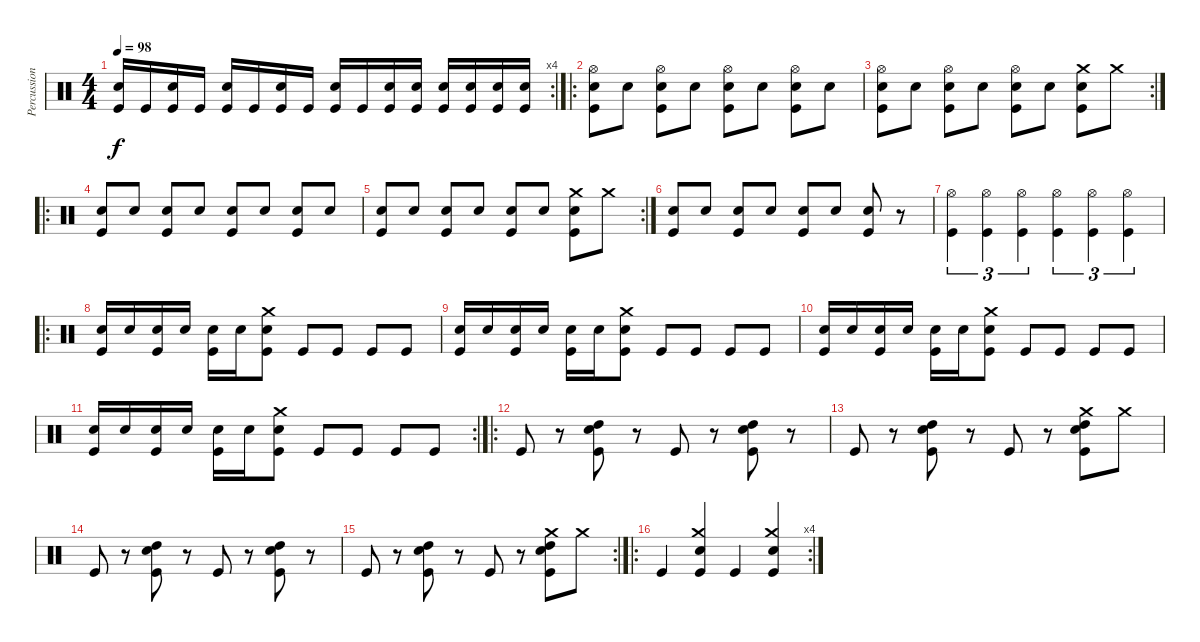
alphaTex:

\track ("Percussion" "Percussion") {instrument percussion}
\staff {score}
\articulation defaults
\rc 4
\ts (4 4)
\tempo 98
\clef neutral
\ks c
("Snare (hit) 2" "Kick (hit)").16{dy f} "Kick (hit)".16 ("Snare (hit) 2" "Kick (hit)").16 "Kick (hit)".16 ("Snare (hit) 2" "Kick (hit)").16 "Kick (hit)".16 ("Snare (hit) 2" "Kick (hit)").16 "Kick (hit)".16 ("Snare (hit) 2" "Kick (hit)").16 "Kick (hit)".16 ("Snare (hit) 2" "Kick (hit)").16 ("Snare (hit) 2" "Kick (hit)").16 ("Snare (hit) 2" "Kick (hit)").16 ("Snare (hit) 2" "Kick (hit)").16 ("Snare (hit) 2" "Kick (hit)").16 ("Snare (hit) 2" "Kick (hit)").16 |
\ro
("Hi-Hat (open)" "Snare (hit) 2" "Kick (hit)").8 "Snare (hit) 2".8 ("Hi-Hat (open)" "Snare (hit) 2" "Kick (hit)").8 "Snare (hit) 2".8 ("Hi-Hat (open)" "Snare (hit) 2" "Kick (hit)").8 "Snare (hit) 2".8 ("Hi-Hat (open)" "Snare (hit) 2" "Kick (hit)").8 "Snare (hit) 2".8 |
\rc 2
("Hi-Hat (open)" "Snare (hit) 2" "Kick (hit)").8 "Snare (hit) 2".8 ("Hi-Hat (open)" "Snare (hit) 2" "Kick (hit)").8 "Snare (hit) 2".8 ("Hi-Hat (open)" "Snare (hit) 2" "Kick (hit)").8 "Snare (hit) 2".8 ("Crash medium (hit)" "Snare (hit) 2" "Kick (hit)").8 "Crash medium (hit)".8 |
\ro
("Snare (hit) 2" "Kick (hit)").8 "Snare (hit) 2".8 ("Snare (hit) 2" "Kick (hit)").8 "Snare (hit) 2".8 ("Snare (hit) 2" "Kick (hit)").8 "Snare (hit) 2".8 ("Snare (hit) 2" "Kick (hit)").8 "Snare (hit) 2".8 |
\rc 2
("Snare (hit) 2" "Kick (hit)").8 "Snare (hit) 2".8 ("Snare (hit) 2" "Kick (hit)").8 "Snare (hit) 2".8 ("Snare (hit) 2" "Kick (hit)").8 "Snare (hit) 2".8 ("Crash medium (hit)" "Snare (hit) 2" "Kick (hit)").8 "Crash medium (hit)".8 |
("Snare (hit) 2" "Kick (hit)").8 "Snare (hit) 2".8 ("Snare (hit) 2" "Kick (hit)").8 "Snare (hit) 2".8 ("Snare (hit) 2" "Kick (hit)").8 "Snare (hit) 2".8 ("Snare (hit) 2" "Kick (hit)").8 r.8 |
("Hi-Hat (open)" "Kick (hit)").4{tu (3 2)} ("Hi-Hat (open)" "Kick (hit)").4{tu (3 2)} ("Hi-Hat (open)" "Kick (hit)").4{tu (3 2)} ("Hi-Hat (open)" "Kick (hit)").4{tu (3 2)} ("Hi-Hat (open)" "Kick (hit)").4{tu (3 2)} ("Hi-Hat (open)" "Kick (hit)").4{tu (3 2)} |
\ro
("Snare (hit) 2" "Kick (hit)").16 "Snare (hit) 2".16 ("Snare (hit) 2" "Kick (hit)").16 "Snare (hit) 2".16 ("Snare (hit) 2" "Kick (hit)").16 "Snare (hit) 2".16 ("Crash medium (hit)" "Snare (hit) 2" "Kick (hit)").8 "Kick (hit)".8 "Kick (hit)".8 "Kick (hit)".8 "Kick (hit)".8 |
("Snare (hit) 2" "Kick (hit)").16 "Snare (hit) 2".16 ("Snare (hit) 2" "Kick (hit)").16 "Snare (hit) 2".16 ("Snare (hit) 2" "Kick (hit)").16 "Snare (hit) 2".16 ("Crash medium (hit)" "Snare (hit) 2" "Kick (hit)").8 "Kick (hit)".8 "Kick (hit)".8 "Kick (hit)".8 "Kick (hit)".8 |
("Snare (hit) 2" "Kick (hit)").16 "Snare (hit) 2".16 ("Snare (hit) 2" "Kick (hit)").16 "Snare (hit) 2".16 ("Snare (hit) 2" "Kick (hit)").16 "Snare (hit) 2".16 ("Crash medium (hit)" "Snare (hit) 2" "Kick (hit)").8 "Kick (hit)".8 "Kick (hit)".8 "Kick (hit)".8 "Kick (hit)".8 |
\rc 2
("Snare (hit) 2" "Kick (hit)").16 "Snare (hit) 2".16 ("Snare (hit) 2" "Kick (hit)").16 "Snare (hit) 2".16 ("Snare (hit) 2" "Kick (hit)").16 "Snare (hit) 2".16 ("Crash medium (hit)" "Snare (hit) 2" "Kick (hit)").8 "Kick (hit)".8 "Kick (hit)".8 "Kick (hit)".8 "Kick (hit)".8 |
\ro "Kick (hit)".8
r.8 ("High Tom (hit)" "Snare (hit) 2" "Kick (hit)").8 r.8 "Kick (hit)".8 r.8 ("High Tom (hit)" "Snare (hit) 2" "Kick (hit)").8 r.8 |
"Kick (hit)".8 r.8 ("High Tom (hit)" "Snare (hit) 2" "Kick (hit)").8 r.8 "Kick (hit)".8 r.8 ("Crash medium (hit)" "High Tom (hit)" "Snare (hit) 2" "Kick (hit)").8 "Crash medium (hit)".8 |
"Kick (hit)".8 r.8 ("High Tom (hit)" "Snare (hit) 2" "Kick (hit)").8 r.8 "Kick (hit)".8 r.8 ("High Tom (hit)" "Snare (hit) 2" "Kick (hit)").8 r.8 |
\rc 2 "Kick (hit)".8
r.8 ("High Tom (hit)" "Snare (hit) 2" "Kick (hit)").8 r.8 "Kick (hit)".8 r.8 ("Crash medium (hit)" "High Tom (hit)" "Snare (hit) 2" "Kick (hit)").8 "Crash medium (hit)".8 |
\ro
\rc 4 "Kick (hit)".4
("Crash medium (hit)" "Electric Snare (hit)" "Kick (hit)").4 "Kick (hit)".4 ("Crash medium (hit)" "Electric Snare (hit)" "Kick (hit)").4
